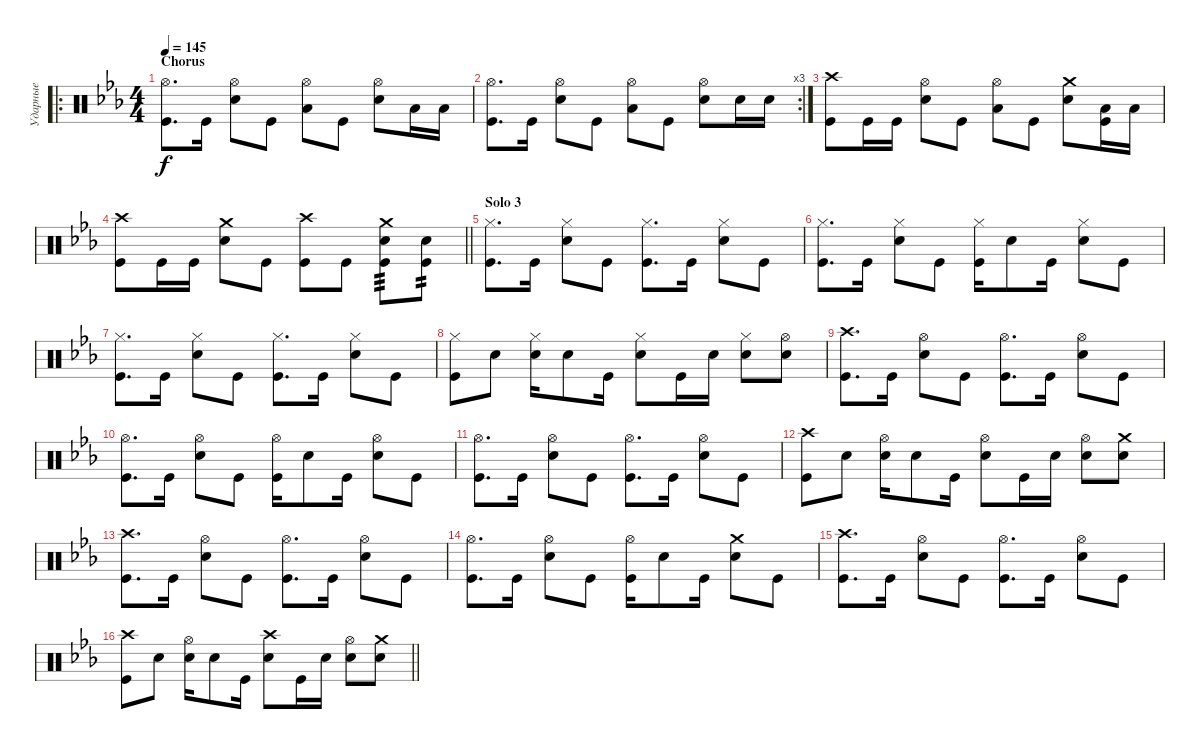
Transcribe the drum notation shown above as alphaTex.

\track ("Ударные" "Ударные") {instrument percussion}
\staff {score}
\articulation defaults
\ro
\ts (4 4)
\section ("" "Chorus")
\tempo 145
\clef neutral
\ks cminor
("Hi-Hat (open)" "Kick (hit)").8{d dy f} "Kick (hit)".16 ("Hi-Hat (open)" "Snare (hit) 2").8 "Kick (hit)".8 ("Hi-Hat (open)" "Low Floor Tom (hit)").8 "Kick (hit)".8 ("Hi-Hat (open)" "Snare (hit) 2").8 "Low Floor Tom (hit)".16 "Low Floor Tom (hit)".16 |
\rc 3
("Hi-Hat (open)" "Kick (hit)").8{d} "Kick (hit)".16 ("Hi-Hat (open)" "Snare (hit) 2").8 "Kick (hit)".8 ("Hi-Hat (open)" "Low Floor Tom (hit)").8 "Kick (hit)".8 ("Hi-Hat (open)" "Snare (hit) 2").8 "Snare (hit) 2".16 "Snare (hit) 2".16 |
("Crash high (hit)" "Kick (hit)").8 "Kick (hit)".16 "Kick (hit)".16 ("Hi-Hat (open)" "Snare (hit) 2").8 "Kick (hit)".8 ("Hi-Hat (open)" "Low Floor Tom (hit)").8 "Kick (hit)".8 ("Crash medium (hit)" "Snare (hit) 2").8 ("Low Floor Tom (hit)" "Kick (hit)").16 "Low Floor Tom (hit)".16 |
\barLineRight lightlight
("Crash high (hit)" "Kick (hit)").8 "Kick (hit)".16 "Kick (hit)".16 ("Crash medium (hit)" "Snare (hit) 2").8 "Kick (hit)".8 ("Crash high (hit)" "Kick (hit)").8 "Kick (hit)".8 ("Crash medium (hit)" "Snare (hit) 2" "Kick (hit)").8{tp 3} ("Snare (hit) 2" "Kick (hit)").8{tp 2} |
\section ("" "Solo 3")
("Hi-Hat (closed)" "Kick (hit)").8{d} "Kick (hit)".16 ("Hi-Hat (closed)" "Snare (hit) 2").8 "Kick (hit)".8 ("Hi-Hat (closed)" "Kick (hit)").8{d} "Kick (hit)".16 ("Hi-Hat (closed)" "Snare (hit) 2").8 "Kick (hit)".8 |
("Hi-Hat (closed)" "Kick (hit)").8{d} "Kick (hit)".16 ("Hi-Hat (closed)" "Snare (hit) 2").8 "Kick (hit)".8 ("Hi-Hat (closed)" "Kick (hit)").16 "Snare (hit) 2".8 "Kick (hit)".16 ("Hi-Hat (closed)" "Snare (hit) 2").8 "Kick (hit)".8 |
("Hi-Hat (closed)" "Kick (hit)").8{d} "Kick (hit)".16 ("Hi-Hat (closed)" "Snare (hit) 2").8 "Kick (hit)".8 ("Hi-Hat (closed)" "Kick (hit)").8{d} "Kick (hit)".16 ("Hi-Hat (closed)" "Snare (hit) 2").8 "Kick (hit)".8 |
("Hi-Hat (closed)" "Kick (hit)").8 "Snare (hit) 2".8 ("Hi-Hat (closed)" "Snare (hit) 2").16 "Snare (hit) 2".8 "Kick (hit)".16 ("Hi-Hat (closed)" "Snare (hit) 2").8 "Kick (hit)".16 "Snare (hit) 2".16 ("Hi-Hat (closed)" "Snare (hit) 2").8 ("Hi-Hat (open)" "Snare (hit) 2").8 |
("Crash high (hit)" "Kick (hit)").8{d} "Kick (hit)".16 ("Hi-Hat (open)" "Snare (hit) 2").8 "Kick (hit)".8 ("Hi-Hat (open)" "Kick (hit)").8{d} "Kick (hit)".16 ("Hi-Hat (open)" "Snare (hit) 2").8 "Kick (hit)".8 |
("Hi-Hat (open)" "Kick (hit)").8{d} "Kick (hit)".16 ("Hi-Hat (open)" "Snare (hit) 2").8 "Kick (hit)".8 ("Hi-Hat (open)" "Kick (hit)").16 "Snare (hit) 2".8 "Kick (hit)".16 ("Hi-Hat (open)" "Snare (hit) 2").8 "Kick (hit)".8 |
("Hi-Hat (open)" "Kick (hit)").8{d} "Kick (hit)".16 ("Hi-Hat (open)" "Snare (hit) 2").8 "Kick (hit)".8 ("Hi-Hat (open)" "Kick (hit)").8{d} "Kick (hit)".16 ("Hi-Hat (open)" "Snare (hit) 2").8 "Kick (hit)".8 |
("Crash high (hit)" "Kick (hit)").8 "Snare (hit) 2".8 ("Hi-Hat (open)" "Snare (hit) 2").16 "Snare (hit) 2".8 "Kick (hit)".16 ("Hi-Hat (open)" "Snare (hit) 2").8 "Kick (hit)".16 "Snare (hit) 2".16 ("Hi-Hat (open)" "Snare (hit) 2").8 ("Crash medium (hit)" "Snare (hit) 2").8 |
("Crash high (hit)" "Kick (hit)").8{d} "Kick (hit)".16 ("Hi-Hat (open)" "Snare (hit) 2").8 "Kick (hit)".8 ("Hi-Hat (open)" "Kick (hit)").8{d} "Kick (hit)".16 ("Hi-Hat (open)" "Snare (hit) 2").8 "Kick (hit)".8 |
("Hi-Hat (open)" "Kick (hit)").8{d} "Kick (hit)".16 ("Hi-Hat (open)" "Snare (hit) 2").8 "Kick (hit)".8 ("Hi-Hat (open)" "Kick (hit)").16 "Snare (hit) 2".8 "Kick (hit)".16 ("Crash medium (hit)" "Snare (hit) 2").8 "Kick (hit)".8 |
("Crash high (hit)" "Kick (hit)").8{d} "Kick (hit)".16 ("Hi-Hat (open)" "Snare (hit) 2").8 "Kick (hit)".8 ("Hi-Hat (open)" "Kick (hit)").8{d} "Kick (hit)".16 ("Hi-Hat (open)" "Snare (hit) 2").8 "Kick (hit)".8 |
\barLineRight lightlight
("Crash high (hit)" "Kick (hit)").8 "Snare (hit) 2".8 ("Hi-Hat (open)" "Snare (hit) 2").16 "Snare (hit) 2".8 "Kick (hit)".16 ("Crash high (hit)" "Snare (hit) 2").8 "Kick (hit)".16 "Snare (hit) 2".16 ("Hi-Hat (open)" "Snare (hit) 2").8 ("Crash medium (hit)" "Snare (hit) 2").8
